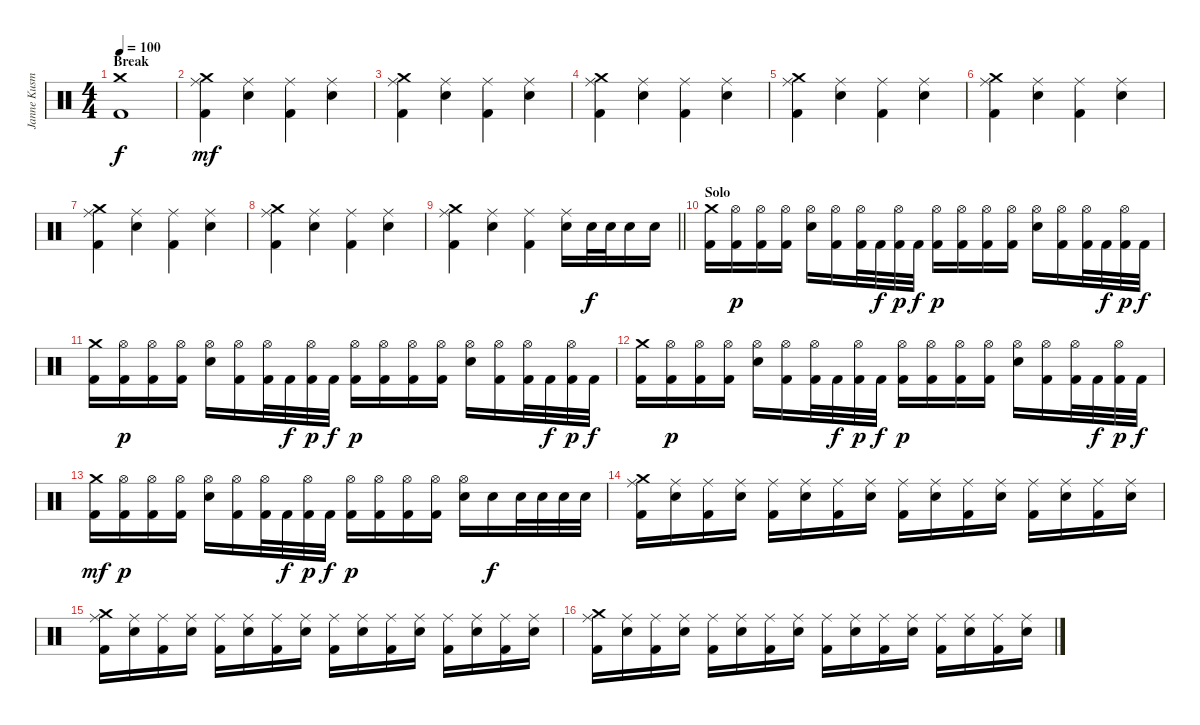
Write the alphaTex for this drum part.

\track ("Janne Kusmin " "Janne Kusm") {instrument percussion}
\staff {score}
\articulation defaults
\ts (4 4)
\section ("" "Break")
\tempo 100
\clef neutral
\ks c
("Crash medium (hit)" "Kick (hit) 2").1{dy f} |
("Crash medium (hit)" "Ride (middle)" "Kick (hit) 2").4{dy mf} ("Ride (middle)" "Electric Snare (hit)").4 ("Ride (middle)" "Kick (hit) 2").4 ("Ride (middle)" "Electric Snare (hit)").4 |
("Crash medium (hit)" "Ride (middle)" "Kick (hit) 2").4 ("Ride (middle)" "Electric Snare (hit)").4 ("Ride (middle)" "Kick (hit) 2").4 ("Ride (middle)" "Electric Snare (hit)").4 |
("Crash medium (hit)" "Ride (middle)" "Kick (hit) 2").4 ("Ride (middle)" "Electric Snare (hit)").4 ("Ride (middle)" "Kick (hit) 2").4 ("Ride (middle)" "Electric Snare (hit)").4 |
("Crash medium (hit)" "Ride (middle)" "Kick (hit) 2").4 ("Ride (middle)" "Electric Snare (hit)").4 ("Ride (middle)" "Kick (hit) 2").4 ("Ride (middle)" "Electric Snare (hit)").4 |
("Crash medium (hit)" "Ride (middle)" "Kick (hit) 2").4 ("Ride (middle)" "Electric Snare (hit)").4 ("Ride (middle)" "Kick (hit) 2").4 ("Ride (middle)" "Electric Snare (hit)").4 |
("Crash medium (hit)" "Ride (middle)" "Kick (hit) 2").4 ("Ride (middle)" "Electric Snare (hit)").4 ("Ride (middle)" "Kick (hit) 2").4 ("Ride (middle)" "Electric Snare (hit)").4 |
("Crash medium (hit)" "Ride (middle)" "Kick (hit) 2").4 ("Ride (middle)" "Electric Snare (hit)").4 ("Ride (middle)" "Kick (hit) 2").4 ("Ride (middle)" "Electric Snare (hit)").4 |
\barLineRight lightlight
("Crash medium (hit)" "Ride (middle)" "Kick (hit) 2").4 ("Ride (middle)" "Electric Snare (hit)").4 ("Ride (middle)" "Kick (hit) 2").4 ("Ride (middle)" "Electric Snare (hit)").16 "Electric Snare (hit)".32{dy f} "Electric Snare (hit)".32 "Electric Snare (hit)".16 "Electric Snare (hit)".16 |
\section ("" "Solo")
("Crash medium (hit)" "Kick (hit) 2").16 ("Hi-Hat (open)" "Kick (hit) 2").16{dy p} ("Hi-Hat (open)" "Kick (hit) 2").16 ("Hi-Hat (open)" "Kick (hit) 2").16 ("Hi-Hat (open)" "Electric Snare (hit)").16 ("Hi-Hat (open)" "Kick (hit) 2").16 ("Hi-Hat (open)" "Kick (hit) 2").32 "Kick (hit) 2".32{dy f} ("Hi-Hat (open)" "Kick (hit) 2").32{dy p} "Kick (hit) 2".32{dy f} ("Hi-Hat (open)" "Kick (hit) 2").16{dy p} ("Hi-Hat (open)" "Kick (hit) 2").16 ("Hi-Hat (open)" "Kick (hit) 2").16 ("Hi-Hat (open)" "Kick (hit) 2").16 ("Hi-Hat (open)" "Electric Snare (hit)").16 ("Hi-Hat (open)" "Kick (hit) 2").16 ("Hi-Hat (open)" "Kick (hit) 2").32 "Kick (hit) 2".32{dy f} ("Hi-Hat (open)" "Kick (hit) 2").32{dy p} "Kick (hit) 2".32{dy f} |
("Crash medium (hit)" "Kick (hit) 2").16 ("Hi-Hat (open)" "Kick (hit) 2").16{dy p} ("Hi-Hat (open)" "Kick (hit) 2").16 ("Hi-Hat (open)" "Kick (hit) 2").16 ("Hi-Hat (open)" "Electric Snare (hit)").16 ("Hi-Hat (open)" "Kick (hit) 2").16 ("Hi-Hat (open)" "Kick (hit) 2").32 "Kick (hit) 2".32{dy f} ("Hi-Hat (open)" "Kick (hit) 2").32{dy p} "Kick (hit) 2".32{dy f} ("Hi-Hat (open)" "Kick (hit) 2").16{dy p} ("Hi-Hat (open)" "Kick (hit) 2").16 ("Hi-Hat (open)" "Kick (hit) 2").16 ("Hi-Hat (open)" "Kick (hit) 2").16 ("Hi-Hat (open)" "Electric Snare (hit)").16 ("Hi-Hat (open)" "Kick (hit) 2").16 ("Hi-Hat (open)" "Kick (hit) 2").32 "Kick (hit) 2".32{dy f} ("Hi-Hat (open)" "Kick (hit) 2").32{dy p} "Kick (hit) 2".32{dy f} |
("Crash medium (hit)" "Kick (hit) 2").16 ("Hi-Hat (open)" "Kick (hit) 2").16{dy p} ("Hi-Hat (open)" "Kick (hit) 2").16 ("Hi-Hat (open)" "Kick (hit) 2").16 ("Hi-Hat (open)" "Electric Snare (hit)").16 ("Hi-Hat (open)" "Kick (hit) 2").16 ("Hi-Hat (open)" "Kick (hit) 2").32 "Kick (hit) 2".32{dy f} ("Hi-Hat (open)" "Kick (hit) 2").32{dy p} "Kick (hit) 2".32{dy f} ("Hi-Hat (open)" "Kick (hit) 2").16{dy p} ("Hi-Hat (open)" "Kick (hit) 2").16 ("Hi-Hat (open)" "Kick (hit) 2").16 ("Hi-Hat (open)" "Kick (hit) 2").16 ("Hi-Hat (open)" "Electric Snare (hit)").16 ("Hi-Hat (open)" "Kick (hit) 2").16 ("Hi-Hat (open)" "Kick (hit) 2").32 "Kick (hit) 2".32{dy f} ("Hi-Hat (open)" "Kick (hit) 2").32{dy p} "Kick (hit) 2".32{dy f} |
("Crash medium (hit)" "Kick (hit) 2").16{dy mf} ("Hi-Hat (open)" "Kick (hit) 2").16{dy p} ("Hi-Hat (open)" "Kick (hit) 2").16 ("Hi-Hat (open)" "Kick (hit) 2").16 ("Hi-Hat (open)" "Electric Snare (hit)").16 ("Hi-Hat (open)" "Kick (hit) 2").16 ("Hi-Hat (open)" "Kick (hit) 2").32 "Kick (hit) 2".32{dy f} ("Hi-Hat (open)" "Kick (hit) 2").32{dy p} "Kick (hit) 2".32{dy f} ("Hi-Hat (open)" "Kick (hit) 2").16{dy p} ("Hi-Hat (open)" "Kick (hit) 2").16 ("Hi-Hat (open)" "Kick (hit) 2").16 ("Hi-Hat (open)" "Kick (hit) 2").16 ("Hi-Hat (open)" "Electric Snare (hit)").16 "Electric Snare (hit)".16{dy f} "Electric Snare (hit)".32 "Electric Snare (hit)".32 "Electric Snare (hit)".32 "Electric Snare (hit)".32 |
("Crash medium (hit)" "Ride (middle)" "Kick (hit) 2").16 ("Ride (middle)" "Electric Snare (hit)").16 ("Ride (middle)" "Kick (hit) 2").16 ("Ride (middle)" "Electric Snare (hit)").16 ("Ride (middle)" "Kick (hit) 2").16 ("Ride (middle)" "Electric Snare (hit)").16 ("Ride (middle)" "Kick (hit) 2").16 ("Ride (middle)" "Electric Snare (hit)").16 ("Ride (middle)" "Kick (hit) 2").16 ("Ride (middle)" "Electric Snare (hit)").16 ("Ride (middle)" "Kick (hit) 2").16 ("Ride (middle)" "Electric Snare (hit)").16 ("Ride (middle)" "Kick (hit) 2").16 ("Ride (middle)" "Electric Snare (hit)").16 ("Ride (middle)" "Kick (hit) 2").16 ("Ride (middle)" "Electric Snare (hit)").16 |
("Crash medium (hit)" "Ride (middle)" "Kick (hit) 2").16 ("Ride (middle)" "Electric Snare (hit)").16 ("Ride (middle)" "Kick (hit) 2").16 ("Ride (middle)" "Electric Snare (hit)").16 ("Ride (middle)" "Kick (hit) 2").16 ("Ride (middle)" "Electric Snare (hit)").16 ("Ride (middle)" "Kick (hit) 2").16 ("Ride (middle)" "Electric Snare (hit)").16 ("Ride (middle)" "Kick (hit) 2").16 ("Ride (middle)" "Electric Snare (hit)").16 ("Ride (middle)" "Kick (hit) 2").16 ("Ride (middle)" "Electric Snare (hit)").16 ("Ride (middle)" "Kick (hit) 2").16 ("Ride (middle)" "Electric Snare (hit)").16 ("Ride (middle)" "Kick (hit) 2").16 ("Ride (middle)" "Electric Snare (hit)").16 |
("Crash medium (hit)" "Ride (middle)" "Kick (hit) 2").16 ("Ride (middle)" "Electric Snare (hit)").16 ("Ride (middle)" "Kick (hit) 2").16 ("Ride (middle)" "Electric Snare (hit)").16 ("Ride (middle)" "Kick (hit) 2").16 ("Ride (middle)" "Electric Snare (hit)").16 ("Ride (middle)" "Kick (hit) 2").16 ("Ride (middle)" "Electric Snare (hit)").16 ("Ride (middle)" "Kick (hit) 2").16 ("Ride (middle)" "Electric Snare (hit)").16 ("Ride (middle)" "Kick (hit) 2").16 ("Ride (middle)" "Electric Snare (hit)").16 ("Ride (middle)" "Kick (hit) 2").16 ("Ride (middle)" "Electric Snare (hit)").16 ("Ride (middle)" "Kick (hit) 2").16 ("Ride (middle)" "Electric Snare (hit)").16
